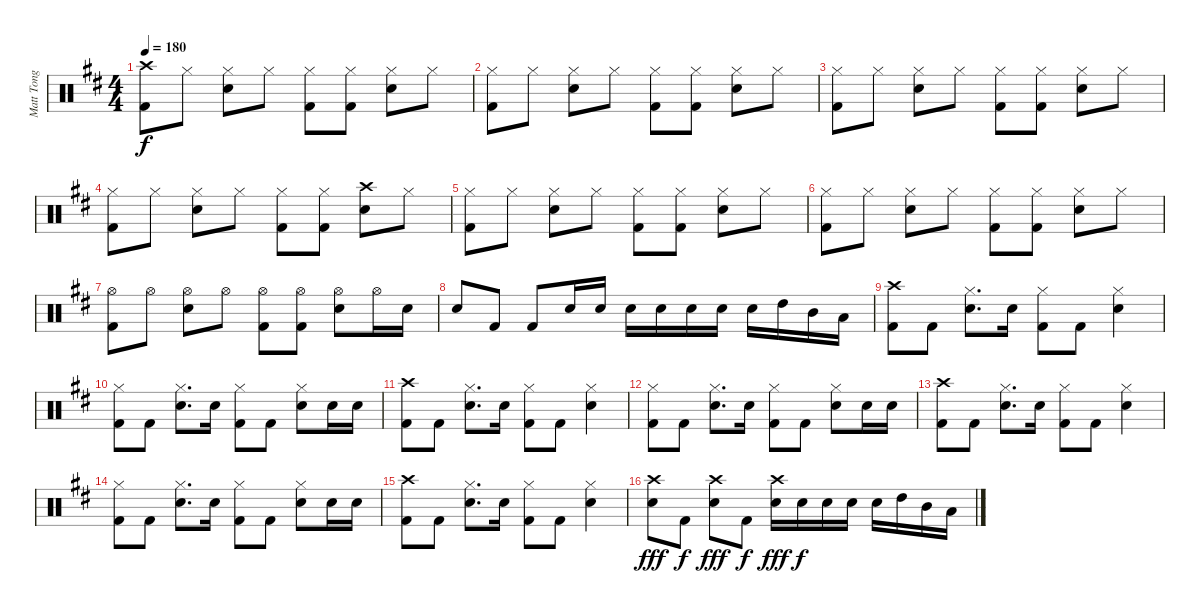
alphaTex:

\track ("Matt Tong" "Matt Tong") {instrument percussion}
\staff {score}
\articulation defaults
\ts (4 4)
\tempo 180
\clef neutral
\ks d
("Crash high (hit)" "Kick (hit) 2").8{dy f} "Hi-Hat (closed)".8 ("Hi-Hat (closed)" "Electric Snare (hit)").8 "Hi-Hat (closed)".8 ("Hi-Hat (closed)" "Kick (hit) 2").8 ("Hi-Hat (closed)" "Kick (hit) 2").8 ("Hi-Hat (closed)" "Electric Snare (hit)").8 "Hi-Hat (closed)".8 |
("Hi-Hat (closed)" "Kick (hit) 2").8 "Hi-Hat (closed)".8 ("Hi-Hat (closed)" "Electric Snare (hit)").8 "Hi-Hat (closed)".8 ("Hi-Hat (closed)" "Kick (hit) 2").8 ("Hi-Hat (closed)" "Kick (hit) 2").8 ("Hi-Hat (closed)" "Electric Snare (hit)").8 "Hi-Hat (closed)".8 |
("Hi-Hat (closed)" "Kick (hit) 2").8 "Hi-Hat (closed)".8 ("Hi-Hat (closed)" "Electric Snare (hit)").8 "Hi-Hat (closed)".8 ("Hi-Hat (closed)" "Kick (hit) 2").8 ("Hi-Hat (closed)" "Kick (hit) 2").8 ("Hi-Hat (closed)" "Electric Snare (hit)").8 "Hi-Hat (closed)".8 |
("Hi-Hat (closed)" "Kick (hit) 2").8 "Hi-Hat (closed)".8 ("Hi-Hat (closed)" "Electric Snare (hit)").8 "Hi-Hat (closed)".8 ("Hi-Hat (closed)" "Kick (hit) 2").8 ("Hi-Hat (closed)" "Kick (hit) 2").8 ("Crash high (hit)" "Electric Snare (hit)").8 "Hi-Hat (closed)".8 |
("Hi-Hat (closed)" "Kick (hit) 2").8 "Hi-Hat (closed)".8 ("Hi-Hat (closed)" "Electric Snare (hit)").8 "Hi-Hat (closed)".8 ("Hi-Hat (closed)" "Kick (hit) 2").8 ("Hi-Hat (closed)" "Kick (hit) 2").8 ("Hi-Hat (closed)" "Electric Snare (hit)").8 "Hi-Hat (closed)".8 |
("Hi-Hat (closed)" "Kick (hit) 2").8 "Hi-Hat (closed)".8 ("Hi-Hat (closed)" "Electric Snare (hit)").8 "Hi-Hat (closed)".8 ("Hi-Hat (closed)" "Kick (hit) 2").8 ("Hi-Hat (closed)" "Kick (hit) 2").8 ("Hi-Hat (closed)" "Electric Snare (hit)").8 "Hi-Hat (closed)".8 |
("Hi-Hat (open)" "Kick (hit) 2").8 "Hi-Hat (open)".8 ("Hi-Hat (open)" "Electric Snare (hit)").8 "Hi-Hat (open)".8 ("Hi-Hat (open)" "Kick (hit) 2").8 ("Hi-Hat (open)" "Kick (hit) 2").8 ("Hi-Hat (open)" "Electric Snare (hit)").8 "Hi-Hat (open)".16 "Electric Snare (hit)".16 |
"Electric Snare (hit)".8 "Kick (hit) 2".8 "Kick (hit) 2".8 "Electric Snare (hit)".16 "Electric Snare (hit)".16 "Electric Snare (hit)".16 "Electric Snare (hit)".16 "Electric Snare (hit)".16 "Electric Snare (hit)".16 "Electric Snare (hit)".16 "High Tom (hit)".16 "Mid Tom (hit)".16 "Low Tom (hit)".16 |
("Crash high (hit)" "Kick (hit) 2").8 "Kick (hit) 2".8 ("Hi-Hat (closed)" "Electric Snare (hit)").8{d} "Electric Snare (hit)".16 ("Hi-Hat (closed)" "Kick (hit) 2").8 "Kick (hit) 2".8 ("Hi-Hat (closed)" "Electric Snare (hit)").4 |
("Hi-Hat (closed)" "Kick (hit) 2").8 "Kick (hit) 2".8 ("Hi-Hat (closed)" "Electric Snare (hit)").8{d} "Electric Snare (hit)".16 ("Hi-Hat (closed)" "Kick (hit) 2").8 "Kick (hit) 2".8 ("Hi-Hat (closed)" "Electric Snare (hit)").8 "Electric Snare (hit)".16 "Electric Snare (hit)".16 |
("Crash high (hit)" "Kick (hit) 2").8 "Kick (hit) 2".8 ("Hi-Hat (closed)" "Electric Snare (hit)").8{d} "Electric Snare (hit)".16 ("Hi-Hat (closed)" "Kick (hit) 2").8 "Kick (hit) 2".8 ("Hi-Hat (closed)" "Electric Snare (hit)").4 |
("Hi-Hat (closed)" "Kick (hit) 2").8 "Kick (hit) 2".8 ("Hi-Hat (closed)" "Electric Snare (hit)").8{d} "Electric Snare (hit)".16 ("Hi-Hat (closed)" "Kick (hit) 2").8 "Kick (hit) 2".8 ("Hi-Hat (closed)" "Electric Snare (hit)").8 "Electric Snare (hit)".16 "Electric Snare (hit)".16 |
("Crash high (hit)" "Kick (hit) 2").8 "Kick (hit) 2".8 ("Hi-Hat (closed)" "Electric Snare (hit)").8{d} "Electric Snare (hit)".16 ("Hi-Hat (closed)" "Kick (hit) 2").8 "Kick (hit) 2".8 ("Hi-Hat (closed)" "Electric Snare (hit)").4 |
("Hi-Hat (closed)" "Kick (hit) 2").8 "Kick (hit) 2".8 ("Hi-Hat (closed)" "Electric Snare (hit)").8{d} "Electric Snare (hit)".16 ("Hi-Hat (closed)" "Kick (hit) 2").8 "Kick (hit) 2".8 ("Hi-Hat (closed)" "Electric Snare (hit)").8 "Electric Snare (hit)".16 "Electric Snare (hit)".16 |
("Crash high (hit)" "Kick (hit) 2").8 "Kick (hit) 2".8 ("Hi-Hat (closed)" "Electric Snare (hit)").8{d} "Electric Snare (hit)".16 ("Hi-Hat (closed)" "Kick (hit) 2").8 "Kick (hit) 2".8 ("Hi-Hat (closed)" "Electric Snare (hit)").4 |
("Crash high (hit)" "Electric Snare (hit)").8{dy fff} "Kick (hit) 2".8{dy f} ("Crash high (hit)" "Electric Snare (hit)").8{dy fff} "Kick (hit) 2".8{dy f} ("Crash high (hit)" "Electric Snare (hit)").16{dy fff} "Electric Snare (hit)".16{dy f} "Electric Snare (hit)".16 "Electric Snare (hit)".16 "Electric Snare (hit)".16 "High Tom (hit)".16 "Mid Tom (hit)".16 "Low Tom (hit)".16
